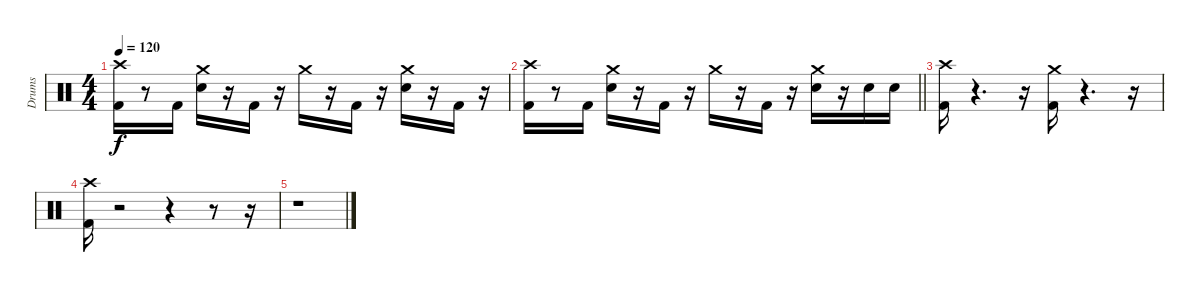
\track ("Drums" "Drums") {instrument percussion}
\staff {score}
\articulation defaults
\ts (4 4)
\tempo 120
\clef neutral
\ks c
("Kick (hit) 2" "Crash high (hit)").16{dy f} r.8 "Kick (hit) 2".16 ("Snare (hit) 2" "Crash medium (hit)").16 r.16 "Kick (hit) 2".16 r.16 "Crash medium (hit)".16 r.16 "Kick (hit) 2".16 r.16 ("Snare (hit) 2" "Crash medium (hit)").16 r.16 "Kick (hit) 2".16 r.16 |
\barLineRight lightlight
("Kick (hit) 2" "Crash high (hit)").16 r.8 "Kick (hit) 2".16 ("Snare (hit) 2" "Crash medium (hit)").16 r.16 "Kick (hit) 2".16 r.16 "Crash medium (hit)".16 r.16 "Kick (hit) 2".16 r.16 ("Snare (hit) 2" "Crash medium (hit)").16 r.16 "Snare (hit) 2".16 "Snare (hit) 2".16 |
\section ("" " ")
("Kick (hit) 2" "Crash high (hit)").16 r.4{d} r.16 ("Kick (hit) 2" "Crash medium (hit)").16 r.4{d} r.16 |
("Kick (hit) 2" "Crash high (hit)").16 r.2 r.4 r.8 r.16 |
r.1
